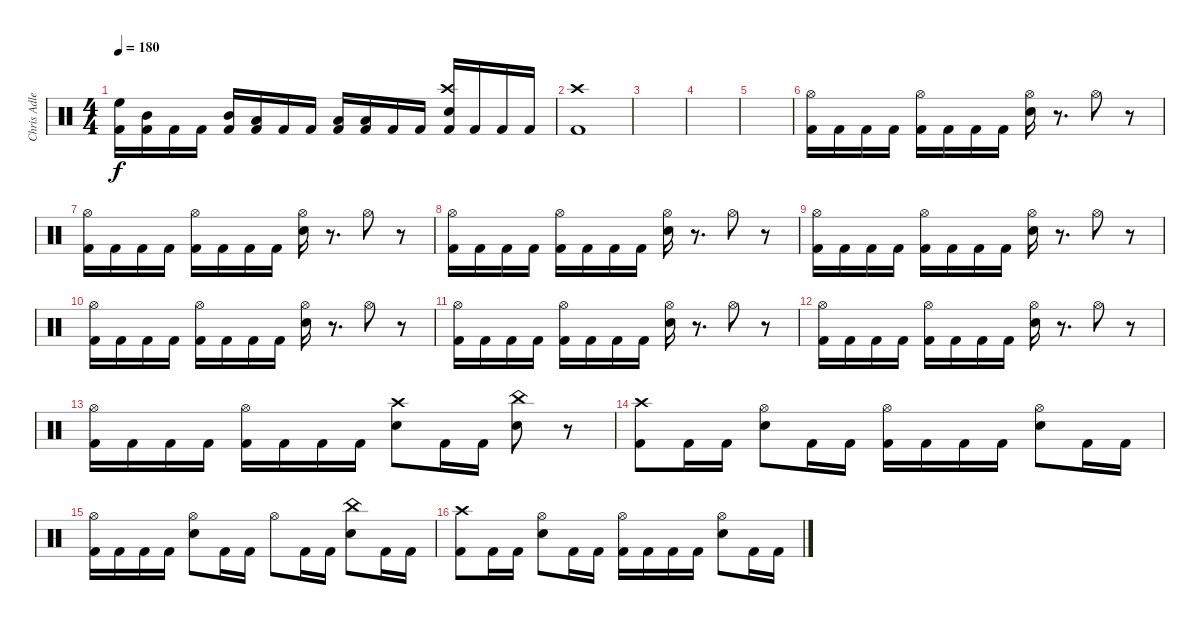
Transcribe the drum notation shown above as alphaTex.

\track ("Chris Adler" "Chris Adle") {instrument percussion}
\staff {score}
\articulation defaults
\ts (4 4)
\tempo 180
\clef neutral
\ks c
("High Floor Tom (hit)" "Kick (hit) 2").16{dy f} ("Mid Tom (hit)" "Kick (hit) 2").16 "Kick (hit) 2".16 "Kick (hit) 2".16 ("Mid Tom (hit)" "Kick (hit) 2").16 ("Low Tom (hit)" "Kick (hit) 2").16 "Kick (hit) 2".16 "Kick (hit) 2".16 ("Low Tom (hit)" "Kick (hit) 2").16 ("Low Floor Tom (hit)" "Kick (hit) 2").16 "Kick (hit) 2".16 "Kick (hit) 2".16 ("Crash high (hit)" "Electric Snare (hit)" "Kick (hit) 2").16 "Kick (hit) 2".16 "Kick (hit) 2".16 "Kick (hit) 2".16 |
("Crash high (hit)" "Kick (hit) 2").1 |
|
|
|
("Hi-Hat (open)" "Kick (hit) 2").16 "Kick (hit) 2".16 "Kick (hit) 2".16 "Kick (hit) 2".16 ("Hi-Hat (open)" "Kick (hit) 2").16 "Kick (hit) 2".16 "Kick (hit) 2".16 "Kick (hit) 2".16 ("Hi-Hat (open)" "Electric Snare (hit)").16 r.8{d} "Hi-Hat (open)".8 r.8 |
("Hi-Hat (open)" "Kick (hit) 2").16 "Kick (hit) 2".16 "Kick (hit) 2".16 "Kick (hit) 2".16 ("Hi-Hat (open)" "Kick (hit) 2").16 "Kick (hit) 2".16 "Kick (hit) 2".16 "Kick (hit) 2".16 ("Hi-Hat (open)" "Electric Snare (hit)").16 r.8{d} "Hi-Hat (open)".8 r.8 |
("Hi-Hat (open)" "Kick (hit) 2").16 "Kick (hit) 2".16 "Kick (hit) 2".16 "Kick (hit) 2".16 ("Hi-Hat (open)" "Kick (hit) 2").16 "Kick (hit) 2".16 "Kick (hit) 2".16 "Kick (hit) 2".16 ("Hi-Hat (open)" "Electric Snare (hit)").16 r.8{d} "Hi-Hat (open)".8 r.8 |
("Hi-Hat (open)" "Kick (hit) 2").16 "Kick (hit) 2".16 "Kick (hit) 2".16 "Kick (hit) 2".16 ("Hi-Hat (open)" "Kick (hit) 2").16 "Kick (hit) 2".16 "Kick (hit) 2".16 "Kick (hit) 2".16 ("Hi-Hat (open)" "Electric Snare (hit)").16 r.8{d} "Hi-Hat (open)".8 r.8 |
("Hi-Hat (open)" "Kick (hit) 2").16 "Kick (hit) 2".16 "Kick (hit) 2".16 "Kick (hit) 2".16 ("Hi-Hat (open)" "Kick (hit) 2").16 "Kick (hit) 2".16 "Kick (hit) 2".16 "Kick (hit) 2".16 ("Hi-Hat (open)" "Electric Snare (hit)").16 r.8{d} "Hi-Hat (open)".8 r.8 |
("Hi-Hat (open)" "Kick (hit) 2").16 "Kick (hit) 2".16 "Kick (hit) 2".16 "Kick (hit) 2".16 ("Hi-Hat (open)" "Kick (hit) 2").16 "Kick (hit) 2".16 "Kick (hit) 2".16 "Kick (hit) 2".16 ("Hi-Hat (open)" "Electric Snare (hit)").16 r.8{d} "Hi-Hat (open)".8 r.8 |
("Hi-Hat (open)" "Kick (hit) 2").16 "Kick (hit) 2".16 "Kick (hit) 2".16 "Kick (hit) 2".16 ("Hi-Hat (open)" "Kick (hit) 2").16 "Kick (hit) 2".16 "Kick (hit) 2".16 "Kick (hit) 2".16 ("Hi-Hat (open)" "Electric Snare (hit)").16 r.8{d} "Hi-Hat (open)".8 r.8 |
("Hi-Hat (open)" "Kick (hit) 2").16 "Kick (hit) 2".16 "Kick (hit) 2".16 "Kick (hit) 2".16 ("Hi-Hat (open)" "Kick (hit) 2").16 "Kick (hit) 2".16 "Kick (hit) 2".16 "Kick (hit) 2".16 ("Crash high (hit)" "Electric Snare (hit)").8 "Kick (hit) 2".16 "Kick (hit) 2".16 ("China (hit)" "Electric Snare (hit)").8 r.8 |
("Crash high (hit)" "Kick (hit) 2").8 "Kick (hit) 2".16 "Kick (hit) 2".16 ("Hi-Hat (open)" "Electric Snare (hit)").8 "Kick (hit) 2".16 "Kick (hit) 2".16 ("Hi-Hat (open)" "Kick (hit) 2").16 "Kick (hit) 2".16 "Kick (hit) 2".16 "Kick (hit) 2".16 ("Hi-Hat (open)" "Electric Snare (hit)").8 "Kick (hit) 2".16 "Kick (hit) 2".16 |
("Hi-Hat (open)" "Kick (hit) 2").16 "Kick (hit) 2".16 "Kick (hit) 2".16 "Kick (hit) 2".16 ("Hi-Hat (open)" "Electric Snare (hit)").8 "Kick (hit) 2".16 "Kick (hit) 2".16 "Hi-Hat (open)".8 "Kick (hit) 2".16 "Kick (hit) 2".16 ("China (hit)" "Electric Snare (hit)").8 "Kick (hit) 2".16 "Kick (hit) 2".16 |
("Crash high (hit)" "Kick (hit) 2").8 "Kick (hit) 2".16 "Kick (hit) 2".16 ("Hi-Hat (open)" "Electric Snare (hit)").8 "Kick (hit) 2".16 "Kick (hit) 2".16 ("Hi-Hat (open)" "Kick (hit) 2").16 "Kick (hit) 2".16 "Kick (hit) 2".16 "Kick (hit) 2".16 ("Hi-Hat (open)" "Electric Snare (hit)").8 "Kick (hit) 2".16 "Kick (hit) 2".16
